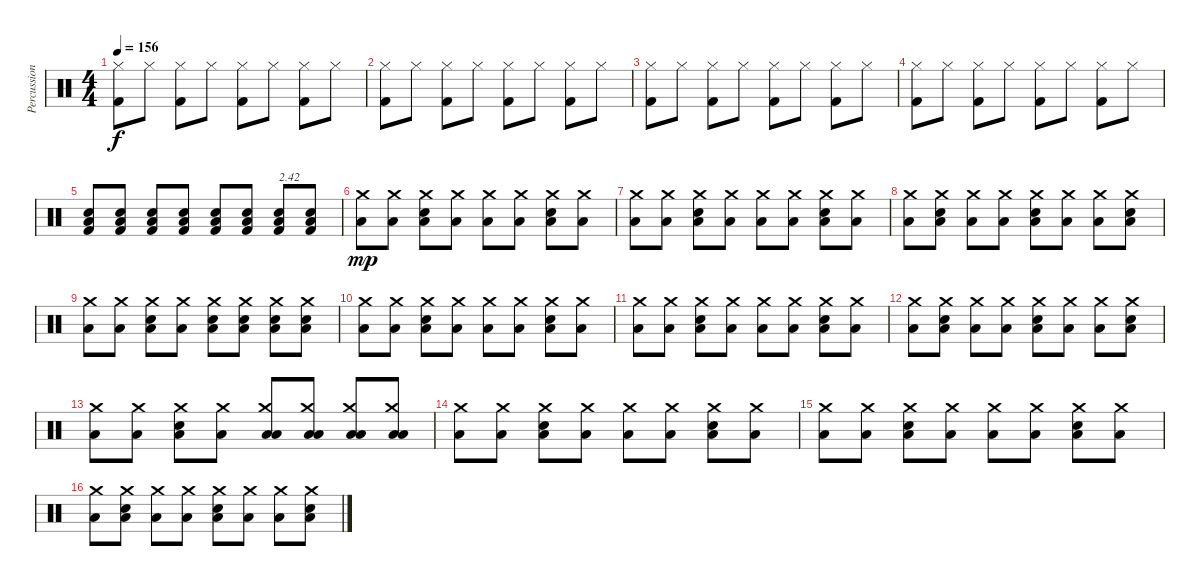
\track ("Percussions" "Percussion") {instrument percussion}
\staff {score}
\articulation defaults
\ts (4 4)
\tempo 156
\clef neutral
\ks c
("Kick (hit) 2" "Hi-Hat (closed)").8{dy f} "Hi-Hat (closed)".8 ("Kick (hit) 2" "Hi-Hat (closed)").8 "Hi-Hat (closed)".8 ("Kick (hit) 2" "Hi-Hat (closed)").8 "Hi-Hat (closed)".8 ("Kick (hit) 2" "Hi-Hat (closed)").8 "Hi-Hat (closed)".8 |
("Kick (hit) 2" "Hi-Hat (closed)").8 "Hi-Hat (closed)".8 ("Kick (hit) 2" "Hi-Hat (closed)").8 "Hi-Hat (closed)".8 ("Kick (hit) 2" "Hi-Hat (closed)").8 "Hi-Hat (closed)".8 ("Kick (hit) 2" "Hi-Hat (closed)").8 "Hi-Hat (closed)".8 |
("Kick (hit) 2" "Hi-Hat (closed)").8 "Hi-Hat (closed)".8 ("Kick (hit) 2" "Hi-Hat (closed)").8 "Hi-Hat (closed)".8 ("Kick (hit) 2" "Hi-Hat (closed)").8 "Hi-Hat (closed)".8 ("Kick (hit) 2" "Hi-Hat (closed)").8 "Hi-Hat (closed)".8 |
("Kick (hit) 2" "Hi-Hat (closed)").8 "Hi-Hat (closed)".8 ("Kick (hit) 2" "Hi-Hat (closed)").8 "Hi-Hat (closed)".8 ("Kick (hit) 2" "Hi-Hat (closed)").8 "Hi-Hat (closed)".8 ("Kick (hit) 2" "Hi-Hat (closed)").8 "Hi-Hat (closed)".8{volume 11} |
("Kick (hit) 2" "Low Floor Tom (hit)" "Electric Snare (hit)").8{volume 16} ("Kick (hit) 2" "Low Floor Tom (hit)" "Electric Snare (hit)").8 ("Kick (hit) 2" "Low Floor Tom (hit)" "Electric Snare (hit)").8 ("Kick (hit) 2" "Low Floor Tom (hit)" "Electric Snare (hit)").8 ("Kick (hit) 2" "Low Floor Tom (hit)" "Electric Snare (hit)").8 ("Kick (hit) 2" "Low Floor Tom (hit)" "Electric Snare (hit)").8 ("Kick (hit) 2" "Low Floor Tom (hit)" "Electric Snare (hit)").8{txt "2.42"} ("Kick (hit) 2" "Low Floor Tom (hit)" "Electric Snare (hit)").8 |
("Low Floor Tom (hit)" "Crash medium (hit)").8{dy mp} ("Low Floor Tom (hit)" "Crash medium (hit)").8 ("Low Floor Tom (hit)" "Electric Snare (hit)" "Crash medium (hit)").8 ("Low Floor Tom (hit)" "Crash medium (hit)").8 ("Low Floor Tom (hit)" "Crash medium (hit)").8 ("Low Floor Tom (hit)" "Crash medium (hit)").8 ("Low Floor Tom (hit)" "Electric Snare (hit)" "Crash medium (hit)").8 ("Low Floor Tom (hit)" "Crash medium (hit)").8 |
("Low Floor Tom (hit)" "Crash medium (hit)").8 ("Low Floor Tom (hit)" "Crash medium (hit)").8 ("Low Floor Tom (hit)" "Electric Snare (hit)" "Crash medium (hit)").8 ("Low Floor Tom (hit)" "Crash medium (hit)").8 ("Low Floor Tom (hit)" "Crash medium (hit)").8 ("Low Floor Tom (hit)" "Crash medium (hit)").8 ("Low Floor Tom (hit)" "Electric Snare (hit)" "Crash medium (hit)").8 ("Low Floor Tom (hit)" "Crash medium (hit)").8 |
("Low Floor Tom (hit)" "Crash medium (hit)").8 ("Low Floor Tom (hit)" "Electric Snare (hit)" "Crash medium (hit)").8 ("Low Floor Tom (hit)" "Crash medium (hit)").8 ("Low Floor Tom (hit)" "Crash medium (hit)").8 ("Low Floor Tom (hit)" "Electric Snare (hit)" "Crash medium (hit)").8 ("Low Floor Tom (hit)" "Crash medium (hit)").8 ("Low Floor Tom (hit)" "Crash medium (hit)").8 ("Low Floor Tom (hit)" "Electric Snare (hit)" "Crash medium (hit)").8 |
("Low Floor Tom (hit)" "Crash medium (hit)").8 ("Low Floor Tom (hit)" "Crash medium (hit)").8 ("Low Floor Tom (hit)" "Electric Snare (hit)" "Crash medium (hit)").8 ("Low Floor Tom (hit)" "Crash medium (hit)").8 ("Low Floor Tom (hit)" "Electric Snare (hit)" "Crash medium (hit)").8 ("Low Floor Tom (hit)" "Electric Snare (hit)" "Crash medium (hit)").8 ("Low Floor Tom (hit)" "Electric Snare (hit)" "Crash medium (hit)").8 ("Low Floor Tom (hit)" "Electric Snare (hit)" "Crash medium (hit)").8 |
("Low Floor Tom (hit)" "Crash medium (hit)").8 ("Low Floor Tom (hit)" "Crash medium (hit)").8 ("Low Floor Tom (hit)" "Electric Snare (hit)" "Crash medium (hit)").8 ("Low Floor Tom (hit)" "Crash medium (hit)").8 ("Low Floor Tom (hit)" "Crash medium (hit)").8 ("Low Floor Tom (hit)" "Crash medium (hit)").8 ("Low Floor Tom (hit)" "Electric Snare (hit)" "Crash medium (hit)").8 ("Low Floor Tom (hit)" "Crash medium (hit)").8 |
("Low Floor Tom (hit)" "Crash medium (hit)").8 ("Low Floor Tom (hit)" "Crash medium (hit)").8 ("Low Floor Tom (hit)" "Electric Snare (hit)" "Crash medium (hit)").8 ("Low Floor Tom (hit)" "Crash medium (hit)").8 ("Low Floor Tom (hit)" "Crash medium (hit)").8 ("Low Floor Tom (hit)" "Crash medium (hit)").8 ("Low Floor Tom (hit)" "Electric Snare (hit)" "Crash medium (hit)").8 ("Low Floor Tom (hit)" "Crash medium (hit)").8 |
("Low Floor Tom (hit)" "Crash medium (hit)").8 ("Low Floor Tom (hit)" "Electric Snare (hit)" "Crash medium (hit)").8 ("Low Floor Tom (hit)" "Crash medium (hit)").8 ("Low Floor Tom (hit)" "Crash medium (hit)").8 ("Low Floor Tom (hit)" "Electric Snare (hit)" "Crash medium (hit)").8 ("Low Floor Tom (hit)" "Crash medium (hit)").8 ("Low Floor Tom (hit)" "Crash medium (hit)").8 ("Low Floor Tom (hit)" "Electric Snare (hit)" "Crash medium (hit)").8 |
("Low Floor Tom (hit)" "Crash medium (hit)").8 ("Low Floor Tom (hit)" "Crash medium (hit)").8 ("Low Floor Tom (hit)" "Electric Snare (hit)" "Crash medium (hit)").8 ("Low Floor Tom (hit)" "Crash medium (hit)").8 ("Low Floor Tom (hit)" "Low Tom (hit)" "Crash medium (hit)").8 ("Low Floor Tom (hit)" "Low Tom (hit)" "Crash medium (hit)").8 ("Low Floor Tom (hit)" "Low Tom (hit)" "Crash medium (hit)").8 ("Low Floor Tom (hit)" "Low Tom (hit)" "Crash medium (hit)").8 |
("Low Floor Tom (hit)" "Crash medium (hit)").8 ("Low Floor Tom (hit)" "Crash medium (hit)").8 ("Low Floor Tom (hit)" "Electric Snare (hit)" "Crash medium (hit)").8 ("Low Floor Tom (hit)" "Crash medium (hit)").8 ("Low Floor Tom (hit)" "Crash medium (hit)").8 ("Low Floor Tom (hit)" "Crash medium (hit)").8 ("Low Floor Tom (hit)" "Electric Snare (hit)" "Crash medium (hit)").8 ("Low Floor Tom (hit)" "Crash medium (hit)").8 |
("Low Floor Tom (hit)" "Crash medium (hit)").8 ("Low Floor Tom (hit)" "Crash medium (hit)").8 ("Low Floor Tom (hit)" "Electric Snare (hit)" "Crash medium (hit)").8 ("Low Floor Tom (hit)" "Crash medium (hit)").8 ("Low Floor Tom (hit)" "Crash medium (hit)").8 ("Low Floor Tom (hit)" "Crash medium (hit)").8 ("Low Floor Tom (hit)" "Electric Snare (hit)" "Crash medium (hit)").8 ("Low Floor Tom (hit)" "Crash medium (hit)").8 |
("Low Floor Tom (hit)" "Crash medium (hit)").8 ("Low Floor Tom (hit)" "Electric Snare (hit)" "Crash medium (hit)").8 ("Low Floor Tom (hit)" "Crash medium (hit)").8 ("Low Floor Tom (hit)" "Crash medium (hit)").8 ("Low Floor Tom (hit)" "Electric Snare (hit)" "Crash medium (hit)").8 ("Low Floor Tom (hit)" "Crash medium (hit)").8 ("Low Floor Tom (hit)" "Crash medium (hit)").8 ("Low Floor Tom (hit)" "Electric Snare (hit)" "Crash medium (hit)").8
